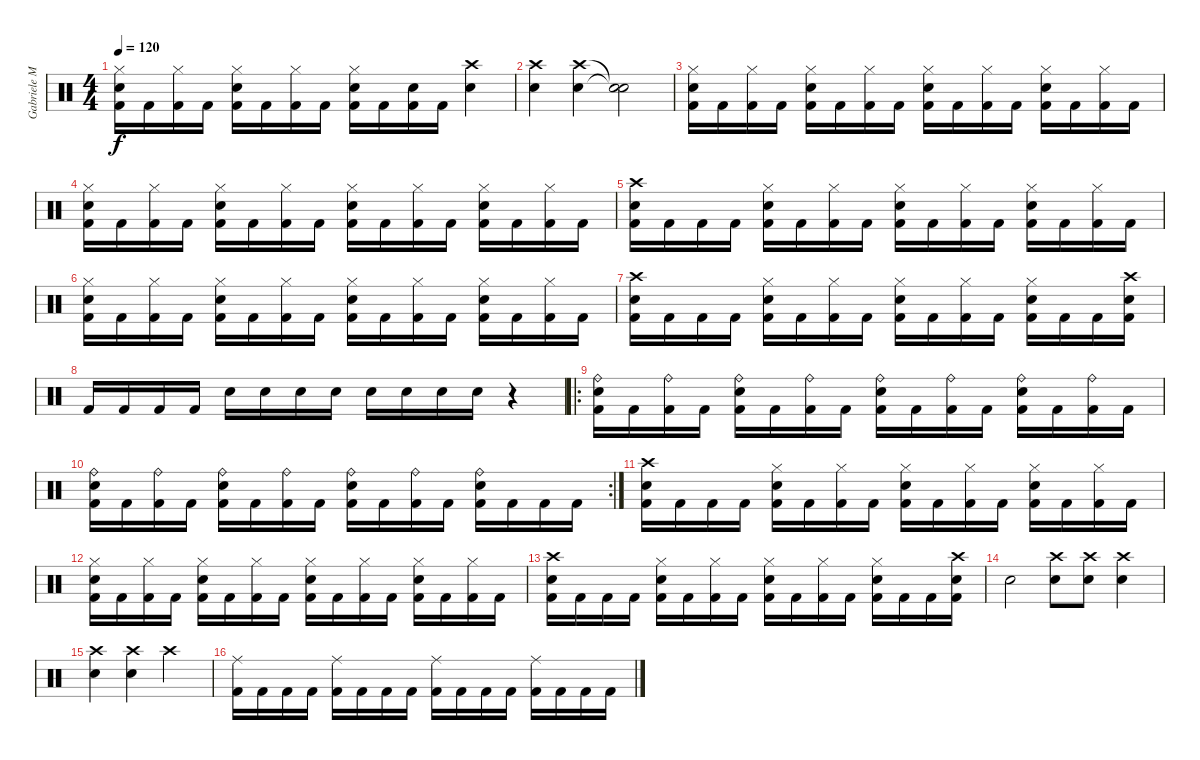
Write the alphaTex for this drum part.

\track ("Gabriele Malatesta" "Gabriele M") {instrument percussion}
\staff {score}
\articulation defaults
\ts (4 4)
\tempo 120
\clef neutral
\ks c
("Hi-Hat (closed)" "Electric Snare (hit)" "Kick (hit) 2").16{dy f} "Kick (hit) 2".16 ("Hi-Hat (closed)" "Kick (hit) 2").16 "Kick (hit) 2".16 ("Hi-Hat (closed)" "Electric Snare (hit)" "Kick (hit) 2").16 "Kick (hit) 2".16 ("Hi-Hat (closed)" "Kick (hit) 2").16 "Kick (hit) 2".16 ("Hi-Hat (closed)" "Electric Snare (hit)" "Kick (hit) 2").16 "Kick (hit) 2".16 ("Snare (hit)" "Kick (hit) 2").16 "Kick (hit) 2".16 ("Crash high (hit)" "Electric Snare (hit)").4 |
("Crash high (hit)" "Electric Snare (hit)").4 ("Crash high (hit)" "Electric Snare (hit)").4 ("Snare (hit)"{t} "Snare (hit)"{t}).2 |
("Hi-Hat (closed)" "Electric Snare (hit)" "Kick (hit) 2").16 "Kick (hit) 2".16 ("Hi-Hat (closed)" "Kick (hit) 2").16 "Kick (hit) 2".16 ("Hi-Hat (closed)" "Electric Snare (hit)" "Kick (hit) 2").16 "Kick (hit) 2".16 ("Hi-Hat (closed)" "Kick (hit) 2").16 "Kick (hit) 2".16 ("Hi-Hat (closed)" "Electric Snare (hit)" "Kick (hit) 2").16 "Kick (hit) 2".16 ("Hi-Hat (closed)" "Kick (hit) 2").16 "Kick (hit) 2".16 ("Hi-Hat (closed)" "Electric Snare (hit)" "Kick (hit) 2").16 "Kick (hit) 2".16 ("Hi-Hat (closed)" "Kick (hit) 2").16 "Kick (hit) 2".16 |
("Hi-Hat (closed)" "Electric Snare (hit)" "Kick (hit) 2").16 "Kick (hit) 2".16 ("Hi-Hat (closed)" "Kick (hit) 2").16 "Kick (hit) 2".16 ("Hi-Hat (closed)" "Electric Snare (hit)" "Kick (hit) 2").16 "Kick (hit) 2".16 ("Hi-Hat (closed)" "Kick (hit) 2").16 "Kick (hit) 2".16 ("Hi-Hat (closed)" "Electric Snare (hit)" "Kick (hit) 2").16 "Kick (hit) 2".16 ("Hi-Hat (closed)" "Kick (hit) 2").16 "Kick (hit) 2".16 ("Hi-Hat (closed)" "Electric Snare (hit)" "Kick (hit) 2").16 "Kick (hit) 2".16 ("Hi-Hat (closed)" "Kick (hit) 2").16 "Kick (hit) 2".16 |
("Crash high (hit)" "Electric Snare (hit)" "Kick (hit) 2").16 "Kick (hit) 2".16 "Kick (hit) 2".16 "Kick (hit) 2".16 ("Hi-Hat (closed)" "Electric Snare (hit)" "Kick (hit) 2").16 "Kick (hit) 2".16 ("Hi-Hat (closed)" "Kick (hit) 2").16 "Kick (hit) 2".16 ("Hi-Hat (closed)" "Electric Snare (hit)" "Kick (hit) 2").16 "Kick (hit) 2".16 ("Hi-Hat (closed)" "Kick (hit) 2").16 "Kick (hit) 2".16 ("Hi-Hat (closed)" "Electric Snare (hit)" "Kick (hit) 2").16 "Kick (hit) 2".16 ("Hi-Hat (closed)" "Kick (hit) 2").16 "Kick (hit) 2".16 |
("Hi-Hat (closed)" "Electric Snare (hit)" "Kick (hit) 2").16 "Kick (hit) 2".16 ("Hi-Hat (closed)" "Kick (hit) 2").16 "Kick (hit) 2".16 ("Hi-Hat (closed)" "Electric Snare (hit)" "Kick (hit) 2").16 "Kick (hit) 2".16 ("Hi-Hat (closed)" "Kick (hit) 2").16 "Kick (hit) 2".16 ("Hi-Hat (closed)" "Electric Snare (hit)" "Kick (hit) 2").16 "Kick (hit) 2".16 ("Hi-Hat (closed)" "Kick (hit) 2").16 "Kick (hit) 2".16 ("Hi-Hat (closed)" "Electric Snare (hit)" "Kick (hit) 2").16 "Kick (hit) 2".16 ("Hi-Hat (closed)" "Kick (hit) 2").16 "Kick (hit) 2".16 |
("Crash high (hit)" "Electric Snare (hit)" "Kick (hit) 2").16 "Kick (hit) 2".16 "Kick (hit) 2".16 "Kick (hit) 2".16 ("Hi-Hat (closed)" "Electric Snare (hit)" "Kick (hit) 2").16 "Kick (hit) 2".16 ("Hi-Hat (closed)" "Kick (hit) 2").16 "Kick (hit) 2".16 ("Hi-Hat (closed)" "Electric Snare (hit)" "Kick (hit) 2").16 "Kick (hit) 2".16 ("Hi-Hat (closed)" "Kick (hit) 2").16 "Kick (hit) 2".16 ("Hi-Hat (closed)" "Electric Snare (hit)" "Kick (hit) 2").16 "Kick (hit) 2".16 "Kick (hit) 2".16 ("Crash high (hit)" "Electric Snare (hit)" "Kick (hit) 2").16 |
"Kick (hit) 2".16 "Kick (hit) 2".16 "Kick (hit) 2".16 "Kick (hit) 2".16 "Electric Snare (hit)".16 "Electric Snare (hit)".16 "Electric Snare (hit)".16 "Electric Snare (hit)".16 "Electric Snare (hit)".16 "Electric Snare (hit)".16 "Electric Snare (hit)".16 "Electric Snare (hit)".16 r.4 |
\ro
("Ride (bell)" "Electric Snare (hit)" "Kick (hit) 2").16 "Kick (hit) 2".16 ("Ride (bell)" "Kick (hit) 2").16 "Kick (hit) 2".16 ("Ride (bell)" "Electric Snare (hit)" "Kick (hit) 2").16 "Kick (hit) 2".16 ("Ride (bell)" "Kick (hit) 2").16 "Kick (hit) 2".16 ("Ride (bell)" "Electric Snare (hit)" "Kick (hit) 2").16 "Kick (hit) 2".16 ("Ride (bell)" "Kick (hit) 2").16 "Kick (hit) 2".16 ("Ride (bell)" "Electric Snare (hit)" "Kick (hit) 2").16 "Kick (hit) 2".16 ("Ride (bell)" "Kick (hit) 2").16 "Kick (hit) 2".16 |
\rc 2
("Ride (bell)" "Electric Snare (hit)" "Kick (hit) 2").16 "Kick (hit) 2".16 ("Ride (bell)" "Kick (hit) 2").16 "Kick (hit) 2".16 ("Ride (bell)" "Electric Snare (hit)" "Kick (hit) 2").16 "Kick (hit) 2".16 ("Ride (bell)" "Kick (hit) 2").16 "Kick (hit) 2".16 ("Ride (bell)" "Electric Snare (hit)" "Kick (hit) 2").16 "Kick (hit) 2".16 ("Ride (bell)" "Kick (hit) 2").16 "Kick (hit) 2".16 ("Ride (bell)" "Electric Snare (hit)" "Kick (hit) 2").16 "Kick (hit) 2".16 "Kick (hit) 2".16 "Kick (hit) 2".16 |
("Crash high (hit)" "Electric Snare (hit)" "Kick (hit) 2").16 "Kick (hit) 2".16 "Kick (hit) 2".16 "Kick (hit) 2".16 ("Electric Snare (hit)" "Hi-Hat (closed)" "Kick (hit) 2").16 "Kick (hit) 2".16 ("Hi-Hat (closed)" "Kick (hit) 2").16 "Kick (hit) 2".16 ("Hi-Hat (closed)" "Electric Snare (hit)" "Kick (hit) 2").16 "Kick (hit) 2".16 ("Hi-Hat (closed)" "Kick (hit) 2").16 "Kick (hit) 2".16 ("Electric Snare (hit)" "Hi-Hat (closed)" "Kick (hit) 2").16 "Kick (hit) 2".16 ("Hi-Hat (closed)" "Kick (hit) 2").16 "Kick (hit) 2".16 |
("Hi-Hat (closed)" "Electric Snare (hit)" "Kick (hit) 2").16 "Kick (hit) 2".16 ("Hi-Hat (closed)" "Kick (hit) 2").16 "Kick (hit) 2".16 ("Electric Snare (hit)" "Hi-Hat (closed)" "Kick (hit) 2").16 "Kick (hit) 2".16 ("Hi-Hat (closed)" "Kick (hit) 2").16 "Kick (hit) 2".16 ("Hi-Hat (closed)" "Electric Snare (hit)" "Kick (hit) 2").16 "Kick (hit) 2".16 ("Hi-Hat (closed)" "Kick (hit) 2").16 "Kick (hit) 2".16 ("Electric Snare (hit)" "Hi-Hat (closed)" "Kick (hit) 2").16 "Kick (hit) 2".16 ("Hi-Hat (closed)" "Kick (hit) 2").16 "Kick (hit) 2".16 |
("Crash high (hit)" "Electric Snare (hit)" "Kick (hit) 2").16 "Kick (hit) 2".16 "Kick (hit) 2".16 "Kick (hit) 2".16 ("Electric Snare (hit)" "Hi-Hat (closed)" "Kick (hit) 2").16 "Kick (hit) 2".16 ("Hi-Hat (closed)" "Kick (hit) 2").16 "Kick (hit) 2".16 ("Hi-Hat (closed)" "Electric Snare (hit)" "Kick (hit) 2").16 "Kick (hit) 2".16 ("Hi-Hat (closed)" "Kick (hit) 2").16 "Kick (hit) 2".16 ("Electric Snare (hit)" "Hi-Hat (closed)" "Kick (hit) 2").16 "Kick (hit) 2".16 "Kick (hit) 2".16 ("Crash high (hit)" "Electric Snare (hit)" "Kick (hit) 2").16 |
"Electric Snare (hit)".2 ("Crash high (hit)" "Electric Snare (hit)").8 ("Crash high (hit)" "Electric Snare (hit)").8 ("Crash high (hit)" "Electric Snare (hit)").4 |
("Crash high (hit)" "Electric Snare (hit)").4 ("Crash high (hit)" "Electric Snare (hit)").4 "Crash high (hit)".2 |
("Ride (middle)" "Kick (hit) 2").16 "Kick (hit) 2".16 "Kick (hit) 2".16 "Kick (hit) 2".16 ("Ride (middle)" "Kick (hit) 2").16 "Kick (hit) 2".16 "Kick (hit) 2".16 "Kick (hit) 2".16 ("Ride (middle)" "Kick (hit) 2").16 "Kick (hit) 2".16 "Kick (hit) 2".16 "Kick (hit) 2".16 ("Ride (middle)" "Kick (hit) 2").16 "Kick (hit) 2".16 "Kick (hit) 2".16 "Kick (hit) 2".16
